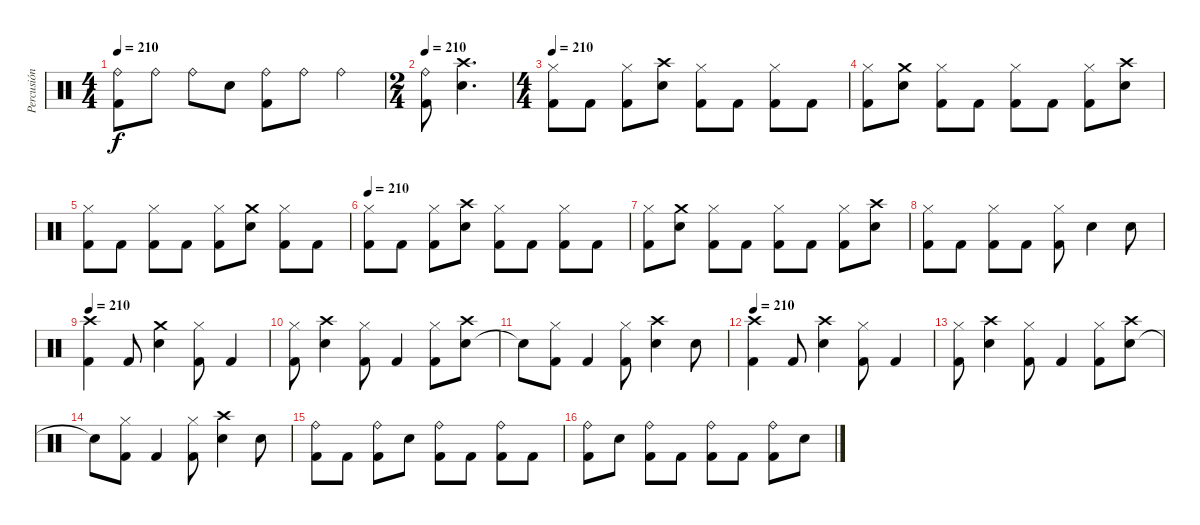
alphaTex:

\track ("Percusión" "Percusión") {instrument percussion}
\staff {score}
\articulation defaults
\ts (4 4)
\tempo 210
\clef neutral
\ks c
("Kick (hit) 2" "Ride (bell)").8{dy f} "Ride (bell)".8 "Ride (bell)".8 "Snare (hit) 2".8 ("Kick (hit) 2" "Ride (bell)").8 "Ride (bell)".8 "Ride (bell)".4 |
\ts (2 4)
\tempo 210
("Kick (hit) 2" "Ride (bell)").8 ("Snare (hit) 2" "Crash high (hit)").4{d} |
\ts (4 4)
\tempo 210
("Kick (hit) 2" "Hi-Hat (closed)").8 "Kick (hit) 2".8 ("Kick (hit) 2" "Hi-Hat (closed)").8 ("Snare (hit) 2" "Crash high (hit)").8 ("Kick (hit) 2" "Hi-Hat (closed)").8 "Kick (hit) 2".8 ("Kick (hit) 2" "Hi-Hat (closed)").8 "Kick (hit) 2".8 |
("Kick (hit) 2" "Hi-Hat (closed)").8 ("Snare (hit) 2" "Crash medium (hit)").8 ("Kick (hit) 2" "Hi-Hat (closed)").8 "Kick (hit) 2".8 ("Kick (hit) 2" "Hi-Hat (closed)").8 "Kick (hit) 2".8 ("Kick (hit) 2" "Hi-Hat (closed)").8 ("Snare (hit) 2" "Crash high (hit)").8 |
("Kick (hit) 2" "Hi-Hat (closed)").8 "Kick (hit) 2".8 ("Kick (hit) 2" "Hi-Hat (closed)").8 "Kick (hit) 2".8 ("Kick (hit) 2" "Hi-Hat (closed)").8 ("Snare (hit) 2" "Crash medium (hit)").8 ("Kick (hit) 2" "Hi-Hat (closed)").8 "Kick (hit) 2".8 |
\tempo 210
("Kick (hit) 2" "Hi-Hat (closed)").8 "Kick (hit) 2".8 ("Kick (hit) 2" "Hi-Hat (closed)").8 ("Snare (hit) 2" "Crash high (hit)").8 ("Kick (hit) 2" "Hi-Hat (closed)").8 "Kick (hit) 2".8 ("Kick (hit) 2" "Hi-Hat (closed)").8 "Kick (hit) 2".8 |
("Kick (hit) 2" "Hi-Hat (closed)").8 ("Snare (hit) 2" "Crash medium (hit)").8 ("Kick (hit) 2" "Hi-Hat (closed)").8 "Kick (hit) 2".8 ("Kick (hit) 2" "Hi-Hat (closed)").8 "Kick (hit) 2".8 ("Kick (hit) 2" "Hi-Hat (closed)").8 ("Snare (hit) 2" "Crash high (hit)").8 |
("Kick (hit) 2" "Hi-Hat (closed)").8 "Kick (hit) 2".8 ("Kick (hit) 2" "Hi-Hat (closed)").8 "Kick (hit) 2".8 ("Kick (hit) 2" "Hi-Hat (closed)").8 "Snare (hit) 2".4 "Snare (hit) 2".8 |
\tempo 210
("Kick (hit) 2" "Crash high (hit)").4 "Kick (hit) 2".8 ("Snare (hit) 2" "Crash medium (hit)").4 ("Kick (hit) 2" "Hi-Hat (closed)").8 "Kick (hit) 2".4 |
("Kick (hit) 2" "Hi-Hat (closed)").8 ("Snare (hit) 2" "Crash high (hit)").4 ("Kick (hit) 2" "Hi-Hat (closed)").8 "Kick (hit) 2".4 ("Kick (hit) 2" "Hi-Hat (closed)").8 ("Snare (hit) 2" "Crash high (hit)").8 |
"Snare (hit)"{t}.8 ("Kick (hit) 2" "Hi-Hat (closed)").8 "Kick (hit) 2".4 ("Kick (hit) 2" "Hi-Hat (closed)").8 ("Snare (hit) 2" "Crash high (hit)").4 "Snare (hit) 2".8 |
\tempo 210
("Kick (hit) 2" "Crash high (hit)").4 "Kick (hit) 2".8 ("Snare (hit) 2" "Crash high (hit)").4 ("Kick (hit) 2" "Hi-Hat (closed)").8 "Kick (hit) 2".4 |
("Kick (hit) 2" "Hi-Hat (closed)").8 ("Snare (hit) 2" "Crash high (hit)").4 ("Kick (hit) 2" "Hi-Hat (closed)").8 "Kick (hit) 2".4 ("Kick (hit) 2" "Hi-Hat (closed)").8 ("Snare (hit) 2" "Crash high (hit)").8 |
"Snare (hit)"{t}.8 ("Kick (hit) 2" "Hi-Hat (closed)").8 "Kick (hit) 2".4 ("Kick (hit) 2" "Hi-Hat (closed)").8 ("Snare (hit) 2" "Crash high (hit)").4 "Snare (hit) 2".8 |
("Kick (hit) 2" "Ride (bell)").8 "Kick (hit) 2".8 ("Kick (hit) 2" "Ride (bell)").8 "Snare (hit) 2".8 ("Kick (hit) 2" "Ride (bell)").8 "Kick (hit) 2".8 ("Kick (hit) 2" "Ride (bell)").8 "Kick (hit) 2".8 |
("Kick (hit) 2" "Ride (bell)").8 "Snare (hit) 2".8 ("Kick (hit) 2" "Ride (bell)").8 "Kick (hit) 2".8 ("Kick (hit) 2" "Ride (bell)").8 "Kick (hit) 2".8 ("Kick (hit) 2" "Ride (bell)").8 "Snare (hit) 2".8
